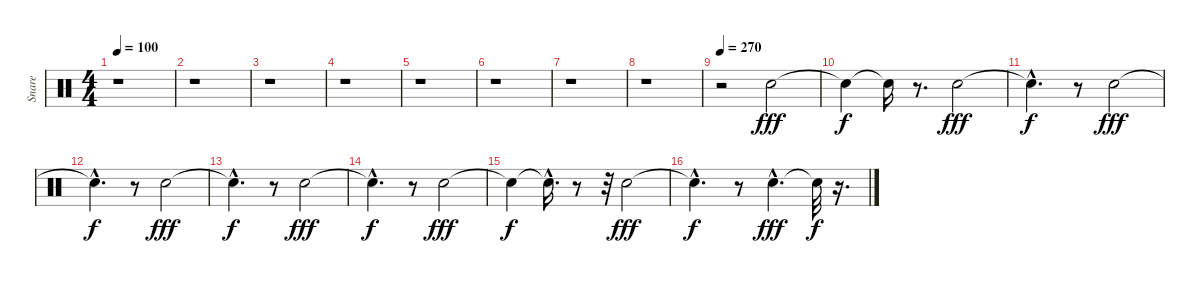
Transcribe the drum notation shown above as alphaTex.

\track ("Snare" "Snare") {instrument percussion}
\staff {score}
\articulation defaults
\ts (4 4)
\tempo 100
\clef neutral
\ks c
r.1{dy fff} |
r.1 |
r.1 |
r.1 |
r.1 |
r.1 |
r.1 |
r.1 |
\tempo 270
r.2 "Electric Snare (hit)".2 |
"Snare (hit)"{t}.4{dy f} "Snare (hit)"{t}.16 r.8{d} "Electric Snare (hit)".2{dy fff} |
"Snare (hit)"{hac t}.4{d dy f} r.8 "Electric Snare (hit)".2{dy fff} |
"Snare (hit)"{hac t}.4{d dy f} r.8 "Electric Snare (hit)".2{dy fff} |
"Snare (hit)"{hac t}.4{d dy f} r.8 "Electric Snare (hit)".2{dy fff} |
"Snare (hit)"{hac t}.4{d dy f} r.8 "Electric Snare (hit)".2{dy fff} |
"Snare (hit)"{t}.4{dy f} "Snare (hit)"{hac t}.16{d} r.8 r.32 "Electric Snare (hit)".2{dy fff} |
"Snare (hit)"{hac t}.4{d dy f} r.8 "Electric Snare (hit)"{hac}.4{d dy fff} "Snare (hit)"{t}.32{dy f} r.16{d}
